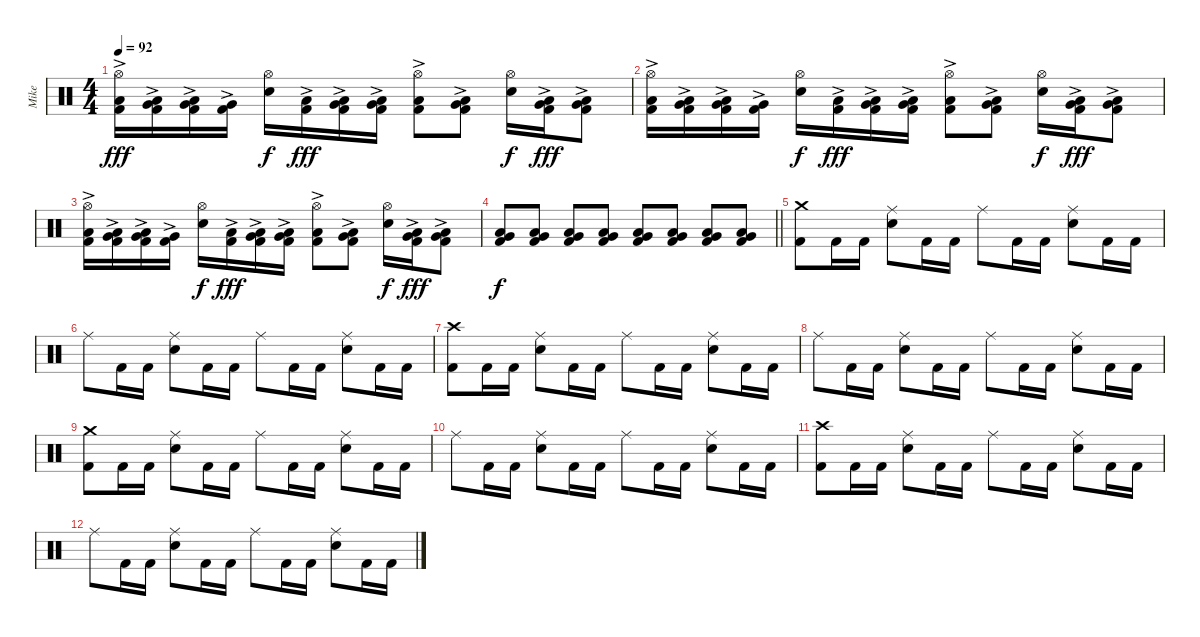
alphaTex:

\track ("Mike" "Mike") {instrument percussion}
\staff {score}
\articulation defaults
\ts (4 4)
\tempo 92
\clef neutral
\ks c
("Hi-Hat (open)" "Low Tom (hit)"{ac} "Kick (hit) 2").16{dy fff} ("Low Tom (hit)"{ac} "Very Low Tom (hit)"{ac} "Kick (hit) 2").16 ("Very Low Tom (hit)"{ac} "Low Floor Tom (hit)"{ac} "Kick (hit) 2").16 ("Very Low Tom (hit)"{ac} "Kick (hit) 2").16 ("Hi-Hat (open)" "Snare (hit) 2").16{dy f} ("Low Tom (hit)"{ac} "Kick (hit) 2").16{dy fff} ("Low Tom (hit)"{ac} "Very Low Tom (hit)"{ac} "Kick (hit) 2").16 ("Very Low Tom (hit)"{ac} "Low Floor Tom (hit)"{ac} "Kick (hit) 2").16 ("Hi-Hat (open)" "Low Floor Tom (hit)"{ac} "Kick (hit) 2").8 ("Very Low Tom (hit)"{ac} "Low Floor Tom (hit)"{ac} "Kick (hit) 2").8 ("Hi-Hat (open)" "Snare (hit) 2").16{dy f} ("Very Low Tom (hit)"{ac} "Low Floor Tom (hit)"{ac} "Kick (hit) 2").16{dy fff} ("Very Low Tom (hit)"{ac} "Low Tom (hit)"{ac} "Kick (hit) 2").8 |
("Hi-Hat (open)" "Low Tom (hit)"{ac} "Kick (hit) 2").16 ("Low Tom (hit)"{ac} "Very Low Tom (hit)"{ac} "Kick (hit) 2").16 ("Very Low Tom (hit)"{ac} "Low Floor Tom (hit)"{ac} "Kick (hit) 2").16 ("Very Low Tom (hit)"{ac} "Kick (hit) 2").16 ("Hi-Hat (open)" "Snare (hit) 2").16{dy f} ("Low Tom (hit)"{ac} "Kick (hit) 2").16{dy fff} ("Low Tom (hit)"{ac} "Very Low Tom (hit)"{ac} "Kick (hit) 2").16 ("Very Low Tom (hit)"{ac} "Low Floor Tom (hit)"{ac} "Kick (hit) 2").16 ("Hi-Hat (open)" "Low Floor Tom (hit)"{ac} "Kick (hit) 2").8 ("Very Low Tom (hit)"{ac} "Low Floor Tom (hit)"{ac} "Kick (hit) 2").8 ("Hi-Hat (open)" "Snare (hit) 2").16{dy f} ("Very Low Tom (hit)"{ac} "Low Floor Tom (hit)"{ac} "Kick (hit) 2").16{dy fff} ("Very Low Tom (hit)"{ac} "Low Tom (hit)"{ac} "Kick (hit) 2").8 |
("Hi-Hat (open)" "Low Tom (hit)"{ac} "Kick (hit) 2").16 ("Low Tom (hit)"{ac} "Very Low Tom (hit)"{ac} "Kick (hit) 2").16 ("Very Low Tom (hit)"{ac} "Low Floor Tom (hit)"{ac} "Kick (hit) 2").16 ("Very Low Tom (hit)"{ac} "Kick (hit) 2").16 ("Hi-Hat (open)" "Snare (hit) 2").16{dy f} ("Low Tom (hit)"{ac} "Kick (hit) 2").16{dy fff} ("Low Tom (hit)"{ac} "Very Low Tom (hit)"{ac} "Kick (hit) 2").16 ("Very Low Tom (hit)"{ac} "Low Floor Tom (hit)"{ac} "Kick (hit) 2").16 ("Hi-Hat (open)" "Low Floor Tom (hit)"{ac} "Kick (hit) 2").8 ("Very Low Tom (hit)"{ac} "Low Floor Tom (hit)"{ac} "Kick (hit) 2").8 ("Hi-Hat (open)" "Snare (hit) 2").16{dy f} ("Very Low Tom (hit)"{ac} "Low Floor Tom (hit)"{ac} "Kick (hit) 2").16{dy fff} ("Very Low Tom (hit)"{ac} "Low Tom (hit)"{ac} "Kick (hit) 2").8 |
\barLineRight lightlight
("Low Tom (hit)" "Very Low Tom (hit)" "Kick (hit) 2").8{dy f} ("Low Tom (hit)" "Very Low Tom (hit)" "Kick (hit) 2").8 ("Low Tom (hit)" "Very Low Tom (hit)" "Kick (hit) 2").8 ("Low Tom (hit)" "Very Low Tom (hit)" "Kick (hit) 2").8 ("Low Tom (hit)" "Very Low Tom (hit)" "Kick (hit) 2").8 ("Low Tom (hit)" "Very Low Tom (hit)" "Kick (hit) 2").8 ("Low Tom (hit)" "Very Low Tom (hit)" "Kick (hit) 2").8 ("Low Tom (hit)" "Very Low Tom (hit)" "Kick (hit) 2").8 |
("Crash medium (hit)" "Kick (hit) 2").8 "Kick (hit) 2".16 "Kick (hit) 2".16 ("Ride (middle)" "Snare (hit) 2").8 "Kick (hit) 2".16 "Kick (hit) 2".16 "Ride (middle)".8 "Kick (hit) 2".16 "Kick (hit) 2".16 ("Ride (middle)" "Snare (hit) 2").8 "Kick (hit) 2".16 "Kick (hit) 2".16 |
"Ride (middle)".8 "Kick (hit) 2".16 "Kick (hit) 2".16 ("Ride (middle)" "Snare (hit) 2").8 "Kick (hit) 2".16 "Kick (hit) 2".16 "Ride (middle)".8 "Kick (hit) 2".16 "Kick (hit) 2".16 ("Ride (middle)" "Snare (hit) 2").8 "Kick (hit) 2".16 "Kick (hit) 2".16 |
("Crash high (hit)" "Kick (hit) 2").8 "Kick (hit) 2".16 "Kick (hit) 2".16 ("Ride (middle)" "Snare (hit) 2").8 "Kick (hit) 2".16 "Kick (hit) 2".16 "Ride (middle)".8 "Kick (hit) 2".16 "Kick (hit) 2".16 ("Ride (middle)" "Snare (hit) 2").8 "Kick (hit) 2".16 "Kick (hit) 2".16 |
"Ride (middle)".8 "Kick (hit) 2".16 "Kick (hit) 2".16 ("Ride (middle)" "Snare (hit) 2").8 "Kick (hit) 2".16 "Kick (hit) 2".16 "Ride (middle)".8 "Kick (hit) 2".16 "Kick (hit) 2".16 ("Ride (middle)" "Snare (hit) 2").8 "Kick (hit) 2".16 "Kick (hit) 2".16 |
("Crash medium (hit)" "Kick (hit) 2").8 "Kick (hit) 2".16 "Kick (hit) 2".16 ("Ride (middle)" "Snare (hit) 2").8 "Kick (hit) 2".16 "Kick (hit) 2".16 "Ride (middle)".8 "Kick (hit) 2".16 "Kick (hit) 2".16 ("Ride (middle)" "Snare (hit) 2").8 "Kick (hit) 2".16 "Kick (hit) 2".16 |
"Ride (middle)".8 "Kick (hit) 2".16 "Kick (hit) 2".16 ("Ride (middle)" "Snare (hit) 2").8 "Kick (hit) 2".16 "Kick (hit) 2".16 "Ride (middle)".8 "Kick (hit) 2".16 "Kick (hit) 2".16 ("Ride (middle)" "Snare (hit) 2").8 "Kick (hit) 2".16 "Kick (hit) 2".16 |
("Crash high (hit)" "Kick (hit) 2").8 "Kick (hit) 2".16 "Kick (hit) 2".16 ("Ride (middle)" "Snare (hit) 2").8 "Kick (hit) 2".16 "Kick (hit) 2".16 "Ride (middle)".8 "Kick (hit) 2".16 "Kick (hit) 2".16 ("Ride (middle)" "Snare (hit) 2").8 "Kick (hit) 2".16 "Kick (hit) 2".16 |
"Ride (middle)".8 "Kick (hit) 2".16 "Kick (hit) 2".16 ("Ride (middle)" "Snare (hit) 2").8 "Kick (hit) 2".16 "Kick (hit) 2".16 "Ride (middle)".8 "Kick (hit) 2".16 "Kick (hit) 2".16 ("Ride (middle)" "Snare (hit) 2").8 "Kick (hit) 2".16 "Kick (hit) 2".16
